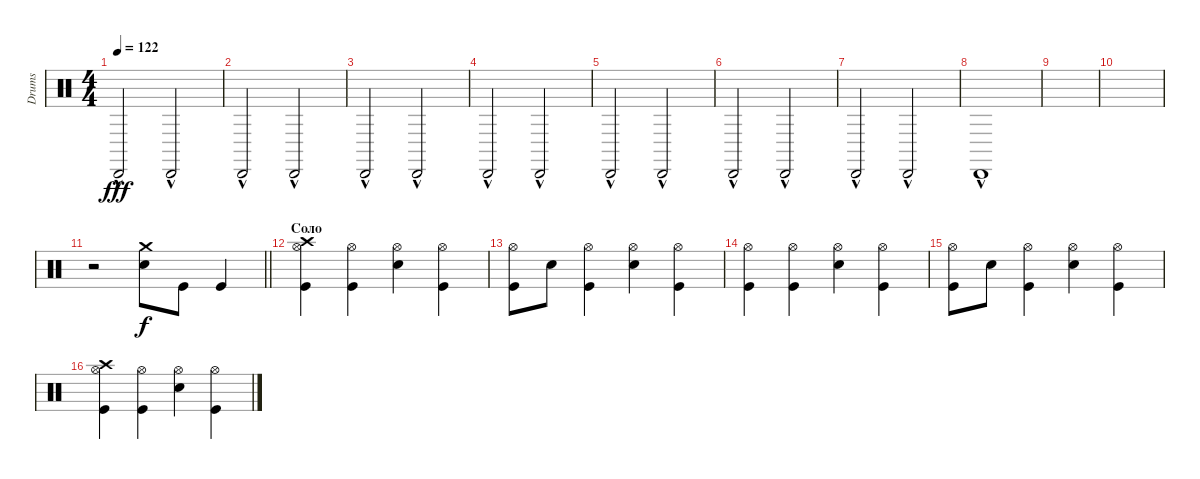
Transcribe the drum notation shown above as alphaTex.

\track ("Drums" "Drums") {instrument percussion}
\staff {score}
\articulation defaults
\ts (4 4)
\tempo 122
\clef neutral
\ks c "Cabasa (hit)"{hac}.2{dy fff} "Cabasa (hit)"{hac}.2
|
"Cabasa (hit)"{hac}.2 "Cabasa (hit)"{hac}.2 |
"Cabasa (hit)"{hac}.2 "Cabasa (hit)"{hac}.2 |
"Cabasa (hit)"{hac}.2 "Cabasa (hit)"{hac}.2 |
"Cabasa (hit)"{hac}.2 "Cabasa (hit)"{hac}.2 |
"Cabasa (hit)"{hac}.2 "Cabasa (hit)"{hac}.2 |
"Cabasa (hit)"{hac}.2 "Cabasa (hit)"{hac}.2 |
"Cabasa (hit)"{hac}.1 |
|
|
\barLineRight lightlight
r.2 ("Snare (hit) 2" "Crash medium (hit)").8{dy f} "Kick (hit)".8 "Kick (hit)".4 |
\section ("" "Соло")
("Kick (hit)" "Hi-Hat (open)" "Crash high (hit)").4 ("Kick (hit)" "Hi-Hat (open)").4 ("Snare (hit) 2" "Hi-Hat (open)").4 ("Kick (hit)" "Hi-Hat (open)").4 |
("Kick (hit)" "Hi-Hat (open)").8 "Snare (hit) 2".8 ("Kick (hit)" "Hi-Hat (open)").4 ("Snare (hit) 2" "Hi-Hat (open)").4 ("Kick (hit)" "Hi-Hat (open)").4 |
("Kick (hit)" "Hi-Hat (open)").4 ("Kick (hit)" "Hi-Hat (open)").4 ("Snare (hit) 2" "Hi-Hat (open)").4 ("Kick (hit)" "Hi-Hat (open)").4 |
("Kick (hit)" "Hi-Hat (open)").8 "Snare (hit) 2".8 ("Kick (hit)" "Hi-Hat (open)").4 ("Snare (hit) 2" "Hi-Hat (open)").4 ("Kick (hit)" "Hi-Hat (open)").4 |
("Kick (hit)" "Hi-Hat (open)" "Crash high (hit)").4 ("Kick (hit)" "Hi-Hat (open)").4 ("Snare (hit) 2" "Hi-Hat (open)").4 ("Kick (hit)" "Hi-Hat (open)").4
